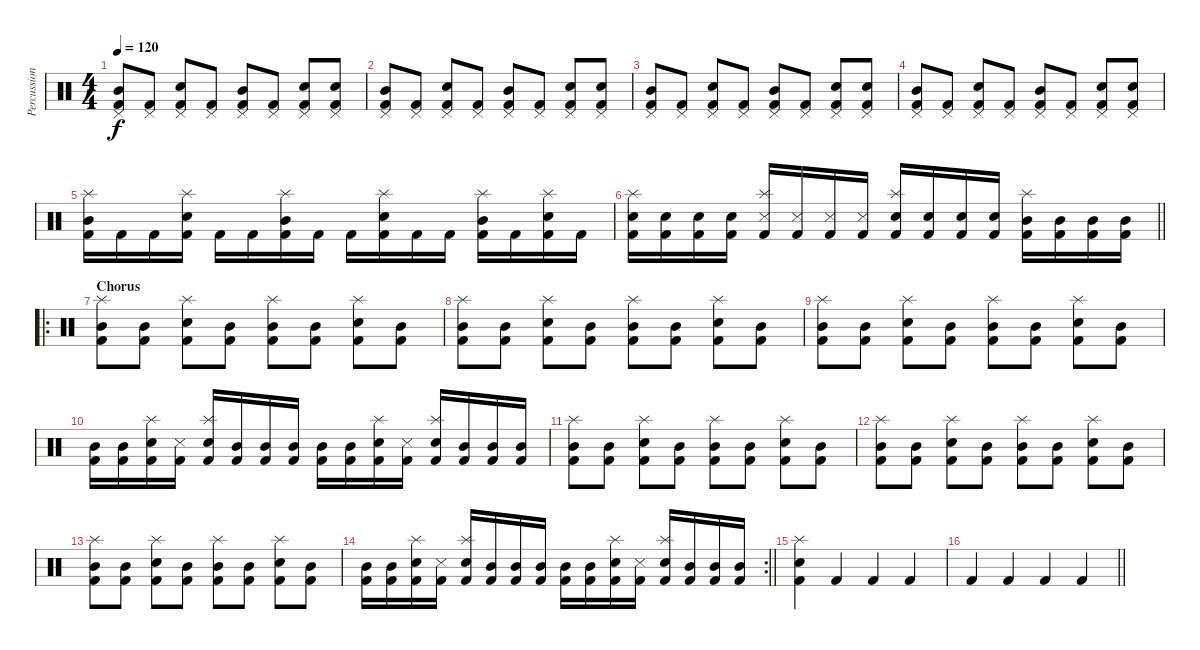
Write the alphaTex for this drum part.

\track ("Percussion" "Percussion") {instrument percussion}
\staff {score}
\articulation defaults
\ts (4 4)
\tempo 120
\clef neutral
\ks c
("Pedal Hi-Hat (hit)" "Mid Tom (hit)" "Kick (hit) 2").8{dy f} ("Pedal Hi-Hat (hit)" "Kick (hit) 2").8 ("Pedal Hi-Hat (hit)" "Electric Snare (hit)" "Kick (hit) 2").8 ("Pedal Hi-Hat (hit)" "Kick (hit) 2").8 ("Pedal Hi-Hat (hit)" "Mid Tom (hit)" "Kick (hit) 2").8 ("Pedal Hi-Hat (hit)" "Kick (hit) 2").8 ("Pedal Hi-Hat (hit)" "Electric Snare (hit)" "Kick (hit) 2").8 ("Pedal Hi-Hat (hit)" "Electric Snare (hit)" "Kick (hit) 2").8 |
("Pedal Hi-Hat (hit)" "Mid Tom (hit)" "Kick (hit) 2").8 ("Pedal Hi-Hat (hit)" "Kick (hit) 2").8 ("Pedal Hi-Hat (hit)" "Electric Snare (hit)" "Kick (hit) 2").8 ("Pedal Hi-Hat (hit)" "Kick (hit) 2").8 ("Pedal Hi-Hat (hit)" "Mid Tom (hit)" "Kick (hit) 2").8 ("Pedal Hi-Hat (hit)" "Kick (hit) 2").8 ("Pedal Hi-Hat (hit)" "Electric Snare (hit)" "Kick (hit) 2").8 ("Pedal Hi-Hat (hit)" "Electric Snare (hit)" "Kick (hit) 2").8 |
("Pedal Hi-Hat (hit)" "Mid Tom (hit)" "Kick (hit) 2").8 ("Pedal Hi-Hat (hit)" "Kick (hit) 2").8 ("Pedal Hi-Hat (hit)" "Electric Snare (hit)" "Kick (hit) 2").8 ("Pedal Hi-Hat (hit)" "Kick (hit) 2").8 ("Pedal Hi-Hat (hit)" "Mid Tom (hit)" "Kick (hit) 2").8 ("Pedal Hi-Hat (hit)" "Kick (hit) 2").8 ("Pedal Hi-Hat (hit)" "Electric Snare (hit)" "Kick (hit) 2").8 ("Pedal Hi-Hat (hit)" "Electric Snare (hit)" "Kick (hit) 2").8 |
("Pedal Hi-Hat (hit)" "Mid Tom (hit)" "Kick (hit) 2").8 ("Pedal Hi-Hat (hit)" "Kick (hit) 2").8 ("Pedal Hi-Hat (hit)" "Electric Snare (hit)" "Kick (hit) 2").8 ("Pedal Hi-Hat (hit)" "Kick (hit) 2").8 ("Pedal Hi-Hat (hit)" "Mid Tom (hit)" "Kick (hit) 2").8 ("Pedal Hi-Hat (hit)" "Kick (hit) 2").8 ("Pedal Hi-Hat (hit)" "Electric Snare (hit)" "Kick (hit) 2").8 ("Pedal Hi-Hat (hit)" "Electric Snare (hit)" "Kick (hit) 2").8 |
("Splash (hit)" "Mid Tom (hit)" "Kick (hit) 2").16 "Kick (hit) 2".16 "Kick (hit) 2".16 ("Splash (hit)" "Electric Snare (hit)" "Kick (hit) 2").16 "Kick (hit) 2".16 "Kick (hit) 2".16 ("Splash (hit)" "Mid Tom (hit)" "Kick (hit) 2").16 "Kick (hit) 2".16 "Kick (hit) 2".16 ("Splash (hit)" "Electric Snare (hit)" "Kick (hit) 2").16 "Kick (hit) 2".16 "Kick (hit) 2".16 ("Splash (hit)" "Mid Tom (hit)" "Kick (hit) 2").16 "Kick (hit) 2".16 ("Splash (hit)" "Electric Snare (hit)" "Kick (hit) 2").16 "Kick (hit) 2".16 |
\barLineRight lightlight
("Splash (hit)" "Electric Snare (hit)" "Kick (hit) 2").16 ("Electric Snare (hit)" "Kick (hit) 2").16 ("Electric Snare (hit)" "Kick (hit) 2").16 ("Electric Snare (hit)" "Kick (hit) 2").16 ("Splash (hit)" "Metronome (hit)" "Kick (hit) 2").16 ("Metronome (hit)" "Kick (hit) 2").16 ("Metronome (hit)" "Kick (hit) 2").16 ("Metronome (hit)" "Kick (hit) 2").16 ("Splash (hit)" "Snare (hit)" "Kick (hit) 2").16 ("Snare (hit)" "Kick (hit) 2").16 ("Snare (hit)" "Kick (hit) 2").16 ("Snare (hit)" "Kick (hit) 2").16 ("Splash (hit)" "Mid Tom (hit)" "Kick (hit) 2").16 ("Mid Tom (hit)" "Kick (hit) 2").16 ("Mid Tom (hit)" "Kick (hit) 2").16 ("Mid Tom (hit)" "Kick (hit) 2").16 |
\ro
\section ("" "Chorus")
("Splash (hit)" "Mid Tom (hit)" "Kick (hit) 2").8 ("Mid Tom (hit)" "Kick (hit) 2").8 ("Splash (hit)" "Electric Snare (hit)" "Kick (hit) 2").8 ("Mid Tom (hit)" "Kick (hit) 2").8 ("Splash (hit)" "Mid Tom (hit)" "Kick (hit) 2").8 ("Mid Tom (hit)" "Kick (hit) 2").8 ("Splash (hit)" "Electric Snare (hit)" "Kick (hit) 2").8 ("Mid Tom (hit)" "Kick (hit) 2").8 |
("Splash (hit)" "Mid Tom (hit)" "Kick (hit) 2").8 ("Mid Tom (hit)" "Kick (hit) 2").8 ("Splash (hit)" "Electric Snare (hit)" "Kick (hit) 2").8 ("Mid Tom (hit)" "Kick (hit) 2").8 ("Splash (hit)" "Mid Tom (hit)" "Kick (hit) 2").8 ("Mid Tom (hit)" "Kick (hit) 2").8 ("Splash (hit)" "Electric Snare (hit)" "Kick (hit) 2").8 ("Mid Tom (hit)" "Kick (hit) 2").8 |
("Splash (hit)" "Mid Tom (hit)" "Kick (hit) 2").8 ("Mid Tom (hit)" "Kick (hit) 2").8 ("Splash (hit)" "Electric Snare (hit)" "Kick (hit) 2").8 ("Mid Tom (hit)" "Kick (hit) 2").8 ("Splash (hit)" "Mid Tom (hit)" "Kick (hit) 2").8 ("Mid Tom (hit)" "Kick (hit) 2").8 ("Splash (hit)" "Electric Snare (hit)" "Kick (hit) 2").8 ("Mid Tom (hit)" "Kick (hit) 2").8 |
("Mid Tom (hit)" "Kick (hit) 2").16 ("Mid Tom (hit)" "Kick (hit) 2").16 ("Splash (hit)" "Electric Snare (hit)" "Kick (hit) 2").16 ("Metronome (hit)" "Kick (hit) 2").16 ("Splash (hit)" "Snare (hit)" "Kick (hit) 2").16 ("Mid Tom (hit)" "Kick (hit) 2").16 ("Mid Tom (hit)" "Kick (hit) 2").16 ("Mid Tom (hit)" "Kick (hit) 2").16 ("Mid Tom (hit)" "Kick (hit) 2").16 ("Mid Tom (hit)" "Kick (hit) 2").16 ("Splash (hit)" "Electric Snare (hit)" "Kick (hit) 2").16 ("Metronome (hit)" "Kick (hit) 2").16 ("Splash (hit)" "Snare (hit)" "Kick (hit) 2").16 ("Mid Tom (hit)" "Kick (hit) 2").16 ("Mid Tom (hit)" "Kick (hit) 2").16 ("Mid Tom (hit)" "Kick (hit) 2").16 |
("Splash (hit)" "Mid Tom (hit)" "Kick (hit) 2").8 ("Mid Tom (hit)" "Kick (hit) 2").8 ("Splash (hit)" "Electric Snare (hit)" "Kick (hit) 2").8 ("Mid Tom (hit)" "Kick (hit) 2").8 ("Splash (hit)" "Mid Tom (hit)" "Kick (hit) 2").8 ("Mid Tom (hit)" "Kick (hit) 2").8 ("Splash (hit)" "Electric Snare (hit)" "Kick (hit) 2").8 ("Mid Tom (hit)" "Kick (hit) 2").8 |
("Splash (hit)" "Mid Tom (hit)" "Kick (hit) 2").8 ("Mid Tom (hit)" "Kick (hit) 2").8 ("Splash (hit)" "Electric Snare (hit)" "Kick (hit) 2").8 ("Mid Tom (hit)" "Kick (hit) 2").8 ("Splash (hit)" "Mid Tom (hit)" "Kick (hit) 2").8 ("Mid Tom (hit)" "Kick (hit) 2").8 ("Splash (hit)" "Electric Snare (hit)" "Kick (hit) 2").8 ("Mid Tom (hit)" "Kick (hit) 2").8 |
("Splash (hit)" "Mid Tom (hit)" "Kick (hit) 2").8 ("Mid Tom (hit)" "Kick (hit) 2").8 ("Splash (hit)" "Electric Snare (hit)" "Kick (hit) 2").8 ("Mid Tom (hit)" "Kick (hit) 2").8 ("Splash (hit)" "Mid Tom (hit)" "Kick (hit) 2").8 ("Mid Tom (hit)" "Kick (hit) 2").8 ("Splash (hit)" "Electric Snare (hit)" "Kick (hit) 2").8 ("Mid Tom (hit)" "Kick (hit) 2").8 |
\rc 2
\barLineRight lightlight
("Mid Tom (hit)" "Kick (hit) 2").16 ("Mid Tom (hit)" "Kick (hit) 2").16 ("Splash (hit)" "Electric Snare (hit)" "Kick (hit) 2").16 ("Metronome (hit)" "Kick (hit) 2").16 ("Splash (hit)" "Snare (hit)" "Kick (hit) 2").16 ("Mid Tom (hit)" "Kick (hit) 2").16 ("Mid Tom (hit)" "Kick (hit) 2").16 ("Mid Tom (hit)" "Kick (hit) 2").16 ("Mid Tom (hit)" "Kick (hit) 2").16 ("Mid Tom (hit)" "Kick (hit) 2").16 ("Splash (hit)" "Electric Snare (hit)" "Kick (hit) 2").16 ("Metronome (hit)" "Kick (hit) 2").16 ("Splash (hit)" "Snare (hit)" "Kick (hit) 2").16 ("Mid Tom (hit)" "Kick (hit) 2").16 ("Mid Tom (hit)" "Kick (hit) 2").16 ("Mid Tom (hit)" "Kick (hit) 2").16 |
("Splash (hit)" "Electric Snare (hit)" "Kick (hit) 2").4 "Kick (hit) 2".4 "Kick (hit) 2".4 "Kick (hit) 2".4 |
\barLineRight lightlight "Kick (hit) 2".4 "Kick (hit) 2".4 "Kick (hit) 2".4 "Kick (hit) 2".4
